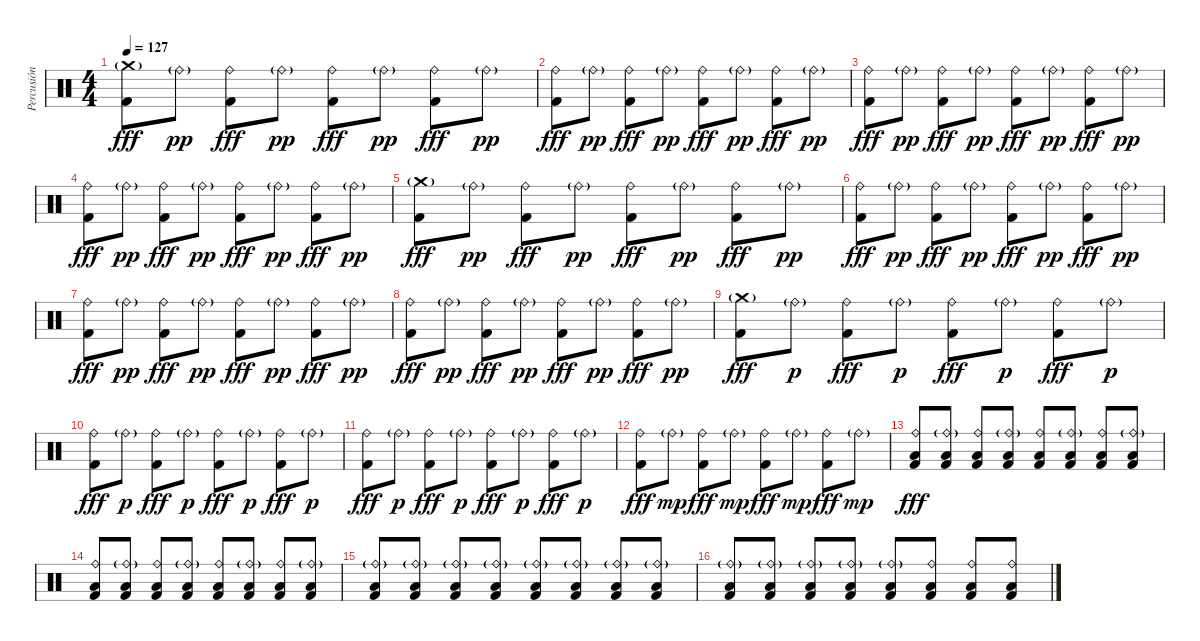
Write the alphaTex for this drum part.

\track ("Percusión" "Percusión") {instrument percussion}
\staff {score}
\articulation defaults
\ts (4 4)
\tempo 127
\clef neutral
\ks c
("Crash medium (hit)"{g} "Kick (hit) 2").8{dy fff} "Ride (bell)"{g}.8{dy pp} ("Ride (bell)" "Kick (hit) 2").8{dy fff} "Ride (bell)"{g}.8{dy pp} ("Ride (bell)" "Kick (hit) 2").8{dy fff} "Ride (bell)"{g}.8{dy pp} ("Ride (bell)" "Kick (hit) 2").8{dy fff} "Ride (bell)"{g}.8{dy pp} |
("Ride (bell)" "Kick (hit) 2").8{dy fff} "Ride (bell)"{g}.8{dy pp} ("Ride (bell)" "Kick (hit) 2").8{dy fff} "Ride (bell)"{g}.8{dy pp} ("Ride (bell)" "Kick (hit) 2").8{dy fff} "Ride (bell)"{g}.8{dy pp} ("Ride (bell)" "Kick (hit) 2").8{dy fff} "Ride (bell)"{g}.8{dy pp} |
("Ride (bell)" "Kick (hit) 2").8{dy fff} "Ride (bell)"{g}.8{dy pp} ("Ride (bell)" "Kick (hit) 2").8{dy fff} "Ride (bell)"{g}.8{dy pp} ("Ride (bell)" "Kick (hit) 2").8{dy fff} "Ride (bell)"{g}.8{dy pp} ("Ride (bell)" "Kick (hit) 2").8{dy fff} "Ride (bell)"{g}.8{dy pp} |
("Ride (bell)" "Kick (hit) 2").8{dy fff} "Ride (bell)"{g}.8{dy pp} ("Ride (bell)" "Kick (hit) 2").8{dy fff} "Ride (bell)"{g}.8{dy pp} ("Ride (bell)" "Kick (hit) 2").8{dy fff} "Ride (bell)"{g}.8{dy pp} ("Ride (bell)" "Kick (hit) 2").8{dy fff} "Ride (bell)"{g}.8{dy pp} |
("Crash medium (hit)"{g} "Kick (hit) 2").8{dy fff} "Ride (bell)"{g}.8{dy pp} ("Ride (bell)" "Kick (hit) 2").8{dy fff} "Ride (bell)"{g}.8{dy pp} ("Ride (bell)" "Kick (hit) 2").8{dy fff} "Ride (bell)"{g}.8{dy pp} ("Ride (bell)" "Kick (hit) 2").8{dy fff} "Ride (bell)"{g}.8{dy pp} |
("Ride (bell)" "Kick (hit) 2").8{dy fff} "Ride (bell)"{g}.8{dy pp} ("Ride (bell)" "Kick (hit) 2").8{dy fff} "Ride (bell)"{g}.8{dy pp} ("Ride (bell)" "Kick (hit) 2").8{dy fff} "Ride (bell)"{g}.8{dy pp} ("Ride (bell)" "Kick (hit) 2").8{dy fff} "Ride (bell)"{g}.8{dy pp} |
("Ride (bell)" "Kick (hit) 2").8{dy fff} "Ride (bell)"{g}.8{dy pp} ("Ride (bell)" "Kick (hit) 2").8{dy fff} "Ride (bell)"{g}.8{dy pp} ("Ride (bell)" "Kick (hit) 2").8{dy fff} "Ride (bell)"{g}.8{dy pp} ("Ride (bell)" "Kick (hit) 2").8{dy fff} "Ride (bell)"{g}.8{dy pp} |
("Ride (bell)" "Kick (hit) 2").8{dy fff} "Ride (bell)"{g}.8{dy pp} ("Ride (bell)" "Kick (hit) 2").8{dy fff} "Ride (bell)"{g}.8{dy pp} ("Ride (bell)" "Kick (hit) 2").8{dy fff} "Ride (bell)"{g}.8{dy pp} ("Ride (bell)" "Kick (hit) 2").8{dy fff} "Ride (bell)"{g}.8{dy pp} |
("Crash medium (hit)"{g} "Kick (hit) 2").8{dy fff} "Ride (bell)"{g}.8{dy p} ("Ride (bell)" "Kick (hit) 2").8{dy fff} "Ride (bell)"{g}.8{dy p} ("Ride (bell)" "Kick (hit) 2").8{dy fff} "Ride (bell)"{g}.8{dy p} ("Ride (bell)" "Kick (hit) 2").8{dy fff} "Ride (bell)"{g}.8{dy p} |
("Ride (bell)" "Kick (hit) 2").8{dy fff} "Ride (bell)"{g}.8{dy p} ("Ride (bell)" "Kick (hit) 2").8{dy fff} "Ride (bell)"{g}.8{dy p} ("Ride (bell)" "Kick (hit) 2").8{dy fff} "Ride (bell)"{g}.8{dy p} ("Ride (bell)" "Kick (hit) 2").8{dy fff} "Ride (bell)"{g}.8{dy p} |
("Ride (bell)" "Kick (hit) 2").8{dy fff} "Ride (bell)"{g}.8{dy p} ("Ride (bell)" "Kick (hit) 2").8{dy fff} "Ride (bell)"{g}.8{dy p} ("Ride (bell)" "Kick (hit) 2").8{dy fff} "Ride (bell)"{g}.8{dy p} ("Ride (bell)" "Kick (hit) 2").8{dy fff} "Ride (bell)"{g}.8{dy p} |
("Ride (bell)" "Kick (hit) 2").8{dy fff} "Ride (bell)"{g}.8{dy mp} ("Ride (bell)" "Kick (hit) 2").8{dy fff} "Ride (bell)"{g}.8{dy mp} ("Ride (bell)" "Kick (hit) 2").8{dy fff} "Ride (bell)"{g}.8{dy mp} ("Ride (bell)" "Kick (hit) 2").8{dy fff} "Ride (bell)"{g}.8{dy mp} |
("Ride (bell)" "Low Floor Tom (hit)" "Kick (hit) 2").8{dy fff} ("Ride (bell)"{g} "Low Floor Tom (hit)" "Kick (hit) 2").8 ("Ride (bell)" "Low Floor Tom (hit)" "Kick (hit) 2").8 ("Ride (bell)"{g} "Low Floor Tom (hit)" "Kick (hit) 2").8 ("Ride (bell)" "Low Floor Tom (hit)" "Kick (hit) 2").8 ("Ride (bell)"{g} "Low Floor Tom (hit)" "Kick (hit) 2").8 ("Ride (bell)" "Low Floor Tom (hit)" "Kick (hit) 2").8 ("Ride (bell)"{g} "Low Floor Tom (hit)" "Kick (hit) 2").8 |
("Ride (bell)" "Low Floor Tom (hit)" "Kick (hit) 2").8 ("Ride (bell)"{g} "Low Floor Tom (hit)" "Kick (hit) 2").8 ("Ride (bell)" "Low Floor Tom (hit)" "Kick (hit) 2").8 ("Ride (bell)"{g} "Low Floor Tom (hit)" "Kick (hit) 2").8 ("Ride (bell)" "Low Floor Tom (hit)" "Kick (hit) 2").8 ("Ride (bell)"{g} "Low Floor Tom (hit)" "Kick (hit) 2").8 ("Ride (bell)" "Low Floor Tom (hit)" "Kick (hit) 2").8 ("Ride (bell)"{g} "Low Floor Tom (hit)" "Kick (hit) 2").8 |
("Ride (bell)"{g} "Low Floor Tom (hit)" "Kick (hit) 2").8 ("Ride (bell)"{g} "Low Floor Tom (hit)" "Kick (hit) 2").8 ("Ride (bell)"{g} "Low Floor Tom (hit)" "Kick (hit) 2").8 ("Ride (bell)"{g} "Low Floor Tom (hit)" "Kick (hit) 2").8 ("Ride (bell)"{g} "Low Floor Tom (hit)" "Kick (hit) 2").8 ("Ride (bell)"{g} "Low Floor Tom (hit)" "Kick (hit) 2").8 ("Ride (bell)"{g} "Low Floor Tom (hit)" "Kick (hit) 2").8 ("Ride (bell)"{g} "Low Floor Tom (hit)" "Kick (hit) 2").8 |
("Ride (bell)"{g} "Low Floor Tom (hit)" "Kick (hit) 2").8 ("Ride (bell)"{g} "Low Floor Tom (hit)" "Kick (hit) 2").8 ("Ride (bell)"{g} "Low Floor Tom (hit)" "Kick (hit) 2").8 ("Ride (bell)"{g} "Low Floor Tom (hit)" "Kick (hit) 2").8 ("Ride (bell)"{g} "Low Floor Tom (hit)" "Kick (hit) 2").8 ("Ride (bell)" "Low Floor Tom (hit)" "Kick (hit) 2").8 ("Ride (bell)" "Low Floor Tom (hit)" "Kick (hit) 2").8 ("Ride (bell)" "Low Floor Tom (hit)" "Kick (hit) 2").8
